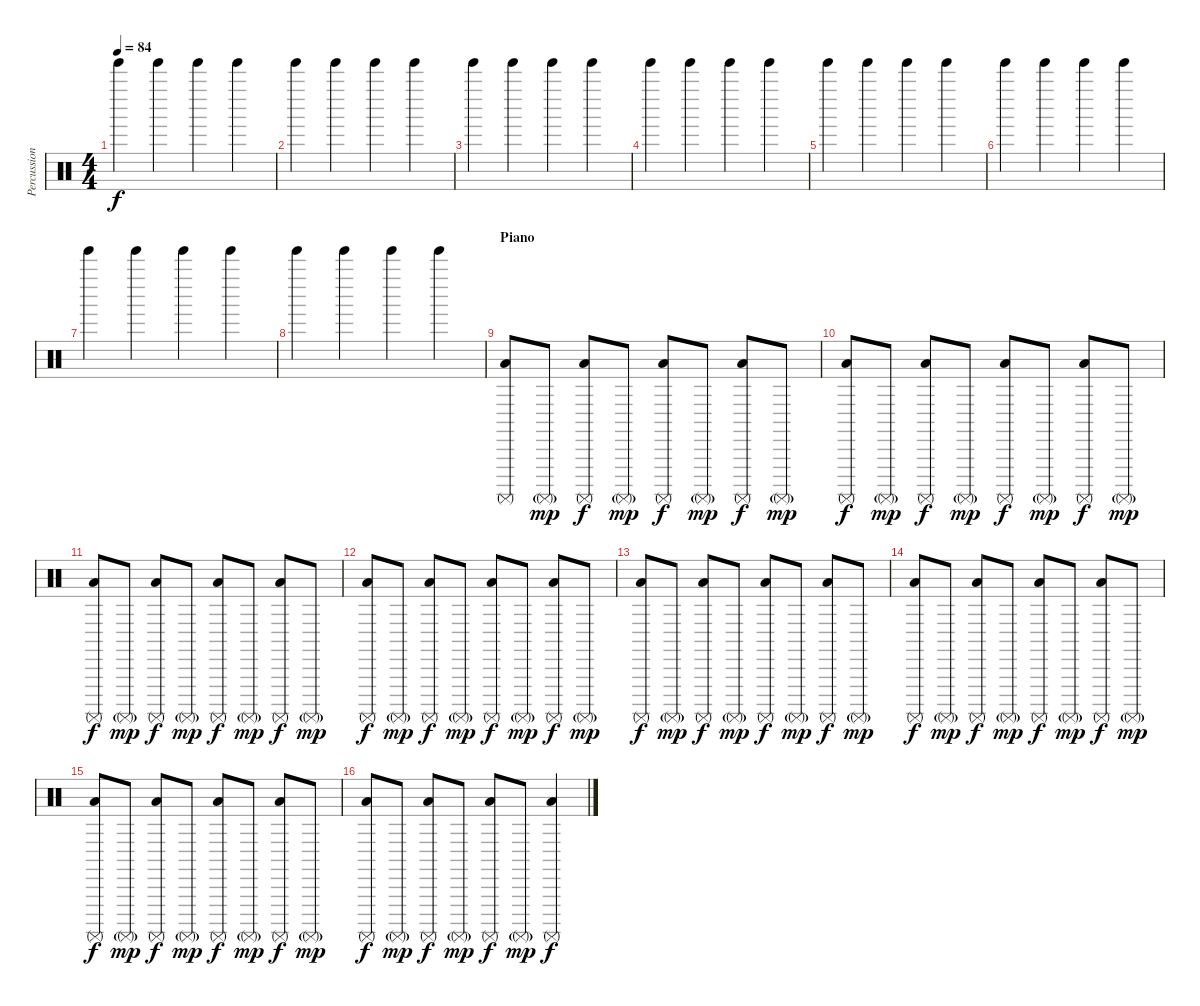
\track ("Percussion" "Percussion") {instrument percussion}
\staff {score}
\articulation defaults
\ts (4 4)
\tempo 84
\clef neutral
\ks c "Tinkle Bell (hit)".4{dy f} "Tinkle Bell (hit)".4 "Tinkle Bell (hit)".4 "Tinkle Bell (hit)".4
|
"Tinkle Bell (hit)".4 "Tinkle Bell (hit)".4 "Tinkle Bell (hit)".4 "Tinkle Bell (hit)".4 |
"Tinkle Bell (hit)".4 "Tinkle Bell (hit)".4 "Tinkle Bell (hit)".4 "Tinkle Bell (hit)".4 |
"Tinkle Bell (hit)".4 "Tinkle Bell (hit)".4 "Tinkle Bell (hit)".4 "Tinkle Bell (hit)".4 |
"Tinkle Bell (hit)".4 "Tinkle Bell (hit)".4 "Tinkle Bell (hit)".4 "Tinkle Bell (hit)".4 |
"Tinkle Bell (hit)".4 "Tinkle Bell (hit)".4 "Tinkle Bell (hit)".4 "Tinkle Bell (hit)".4 |
"Tinkle Bell (hit)".4 "Tinkle Bell (hit)".4 "Tinkle Bell (hit)".4 "Tinkle Bell (hit)".4 |
"Tinkle Bell (hit)".4 "Tinkle Bell (hit)".4 "Tinkle Bell (hit)".4 "Tinkle Bell (hit)".4 |
\section ("" "Piano")
("Low Floor Tom (hit)" "Surdo (mute)").8{volume 9} "Surdo (mute)"{g}.8{dy mp} ("Low Floor Tom (hit)" "Surdo (mute)").8{dy f} "Surdo (mute)"{g}.8{dy mp} ("Low Floor Tom (hit)" "Surdo (mute)").8{dy f} "Surdo (mute)"{g}.8{dy mp} ("Low Floor Tom (hit)" "Surdo (mute)").8{dy f} "Surdo (mute)"{g}.8{dy mp} |
("Low Floor Tom (hit)" "Surdo (mute)").8{dy f volume 8} "Surdo (mute)"{g}.8{dy mp} ("Low Floor Tom (hit)" "Surdo (mute)").8{dy f} "Surdo (mute)"{g}.8{dy mp} ("Low Floor Tom (hit)" "Surdo (mute)").8{dy f} "Surdo (mute)"{g}.8{dy mp} ("Low Floor Tom (hit)" "Surdo (mute)").8{dy f} "Surdo (mute)"{g}.8{dy mp} |
("Low Floor Tom (hit)" "Surdo (mute)").8{dy f volume 8} "Surdo (mute)"{g}.8{dy mp} ("Low Floor Tom (hit)" "Surdo (mute)").8{dy f} "Surdo (mute)"{g}.8{dy mp} ("Low Floor Tom (hit)" "Surdo (mute)").8{dy f} "Surdo (mute)"{g}.8{dy mp} ("Low Floor Tom (hit)" "Surdo (mute)").8{dy f} "Surdo (mute)"{g}.8{dy mp} |
("Low Floor Tom (hit)" "Surdo (mute)").8{dy f volume 8} "Surdo (mute)"{g}.8{dy mp} ("Low Floor Tom (hit)" "Surdo (mute)").8{dy f} "Surdo (mute)"{g}.8{dy mp} ("Low Floor Tom (hit)" "Surdo (mute)").8{dy f} "Surdo (mute)"{g}.8{dy mp} ("Low Floor Tom (hit)" "Surdo (mute)").8{dy f} "Surdo (mute)"{g}.8{dy mp} |
("Low Floor Tom (hit)" "Surdo (mute)").8{dy f volume 8} "Surdo (mute)"{g}.8{dy mp} ("Low Floor Tom (hit)" "Surdo (mute)").8{dy f} "Surdo (mute)"{g}.8{dy mp} ("Low Floor Tom (hit)" "Surdo (mute)").8{dy f} "Surdo (mute)"{g}.8{dy mp} ("Low Floor Tom (hit)" "Surdo (mute)").8{dy f} "Surdo (mute)"{g}.8{dy mp} |
("Low Floor Tom (hit)" "Surdo (mute)").8{dy f volume 8} "Surdo (mute)"{g}.8{dy mp} ("Low Floor Tom (hit)" "Surdo (mute)").8{dy f} "Surdo (mute)"{g}.8{dy mp} ("Low Floor Tom (hit)" "Surdo (mute)").8{dy f} "Surdo (mute)"{g}.8{dy mp} ("Low Floor Tom (hit)" "Surdo (mute)").8{dy f} "Surdo (mute)"{g}.8{dy mp} |
("Low Floor Tom (hit)" "Surdo (mute)").8{dy f volume 8} "Surdo (mute)"{g}.8{dy mp} ("Low Floor Tom (hit)" "Surdo (mute)").8{dy f} "Surdo (mute)"{g}.8{dy mp} ("Low Floor Tom (hit)" "Surdo (mute)").8{dy f} "Surdo (mute)"{g}.8{dy mp} ("Low Floor Tom (hit)" "Surdo (mute)").8{dy f} "Surdo (mute)"{g}.8{dy mp} |
("Low Floor Tom (hit)" "Surdo (mute)").8{dy f volume 8} "Surdo (mute)"{g}.8{dy mp} ("Low Floor Tom (hit)" "Surdo (mute)").8{dy f} "Surdo (mute)"{g}.8{dy mp} ("Low Floor Tom (hit)" "Surdo (mute)").8{dy f} "Surdo (mute)"{g}.8{dy mp} ("Low Floor Tom (hit)" "Surdo (mute)").4{dy f}
